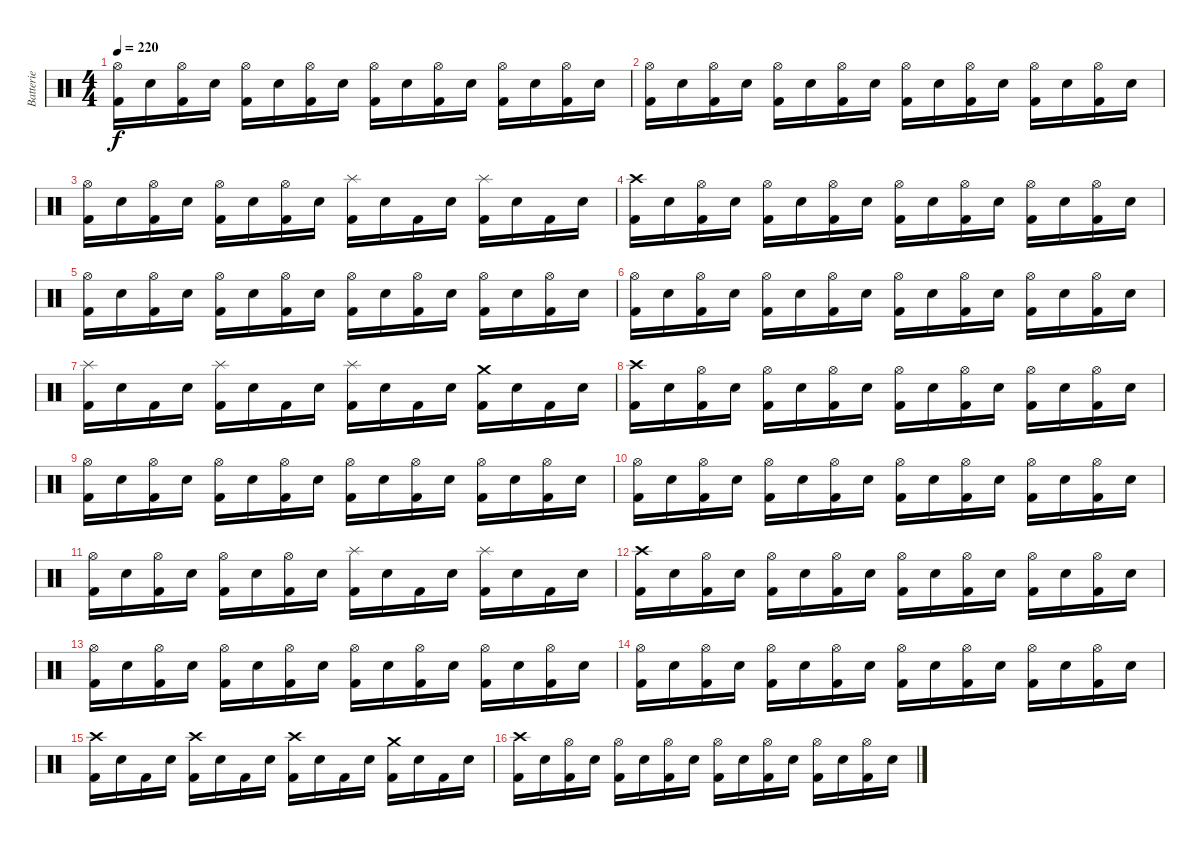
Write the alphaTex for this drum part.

\track ("Batterie" "Batterie") {instrument percussion}
\staff {score}
\articulation defaults
\ts (4 4)
\tempo 220
\clef neutral
\ks c
("Hi-Hat (open)" "Kick (hit) 2").16{dy f} "Electric Snare (hit)".16 ("Hi-Hat (open)" "Kick (hit) 2").16 "Electric Snare (hit)".16 ("Hi-Hat (open)" "Kick (hit) 2").16 "Electric Snare (hit)".16 ("Hi-Hat (open)" "Kick (hit) 2").16 "Electric Snare (hit)".16 ("Hi-Hat (open)" "Kick (hit) 2").16 "Electric Snare (hit)".16 ("Hi-Hat (open)" "Kick (hit) 2").16 "Electric Snare (hit)".16 ("Hi-Hat (open)" "Kick (hit) 2").16 "Electric Snare (hit)".16 ("Hi-Hat (open)" "Kick (hit) 2").16 "Electric Snare (hit)".16 |
("Hi-Hat (open)" "Kick (hit) 2").16 "Electric Snare (hit)".16 ("Hi-Hat (open)" "Kick (hit) 2").16 "Electric Snare (hit)".16 ("Hi-Hat (open)" "Kick (hit) 2").16 "Electric Snare (hit)".16 ("Hi-Hat (open)" "Kick (hit) 2").16 "Electric Snare (hit)".16 ("Hi-Hat (open)" "Kick (hit) 2").16 "Electric Snare (hit)".16 ("Hi-Hat (open)" "Kick (hit) 2").16 "Electric Snare (hit)".16 ("Hi-Hat (open)" "Kick (hit) 2").16 "Electric Snare (hit)".16 ("Hi-Hat (open)" "Kick (hit) 2").16 "Electric Snare (hit)".16 |
("Hi-Hat (open)" "Kick (hit) 2").16 "Electric Snare (hit)".16 ("Hi-Hat (open)" "Kick (hit) 2").16 "Electric Snare (hit)".16 ("Hi-Hat (open)" "Kick (hit) 2").16 "Electric Snare (hit)".16 ("Hi-Hat (open)" "Kick (hit) 2").16 "Electric Snare (hit)".16 ("Splash (hit)" "Kick (hit) 2").16 "Electric Snare (hit)".16 "Kick (hit) 2".16 "Electric Snare (hit)".16 ("Splash (hit)" "Kick (hit) 2").16 "Electric Snare (hit)".16 "Kick (hit) 2".16 "Electric Snare (hit)".16 |
("Crash high (hit)" "Kick (hit) 2").16 "Electric Snare (hit)".16 ("Hi-Hat (open)" "Kick (hit) 2").16 "Electric Snare (hit)".16 ("Hi-Hat (open)" "Kick (hit) 2").16 "Electric Snare (hit)".16 ("Hi-Hat (open)" "Kick (hit) 2").16 "Electric Snare (hit)".16 ("Hi-Hat (open)" "Kick (hit) 2").16 "Electric Snare (hit)".16 ("Hi-Hat (open)" "Kick (hit) 2").16 "Electric Snare (hit)".16 ("Hi-Hat (open)" "Kick (hit) 2").16 "Electric Snare (hit)".16 ("Hi-Hat (open)" "Kick (hit) 2").16 "Electric Snare (hit)".16 |
("Hi-Hat (open)" "Kick (hit) 2").16 "Electric Snare (hit)".16 ("Hi-Hat (open)" "Kick (hit) 2").16 "Electric Snare (hit)".16 ("Hi-Hat (open)" "Kick (hit) 2").16 "Electric Snare (hit)".16 ("Hi-Hat (open)" "Kick (hit) 2").16 "Electric Snare (hit)".16 ("Hi-Hat (open)" "Kick (hit) 2").16 "Electric Snare (hit)".16 ("Hi-Hat (open)" "Kick (hit) 2").16 "Electric Snare (hit)".16 ("Hi-Hat (open)" "Kick (hit) 2").16 "Electric Snare (hit)".16 ("Hi-Hat (open)" "Kick (hit) 2").16 "Electric Snare (hit)".16 |
("Hi-Hat (open)" "Kick (hit) 2").16 "Electric Snare (hit)".16 ("Hi-Hat (open)" "Kick (hit) 2").16 "Electric Snare (hit)".16 ("Hi-Hat (open)" "Kick (hit) 2").16 "Electric Snare (hit)".16 ("Hi-Hat (open)" "Kick (hit) 2").16 "Electric Snare (hit)".16 ("Hi-Hat (open)" "Kick (hit) 2").16 "Electric Snare (hit)".16 ("Hi-Hat (open)" "Kick (hit) 2").16 "Electric Snare (hit)".16 ("Hi-Hat (open)" "Kick (hit) 2").16 "Electric Snare (hit)".16 ("Hi-Hat (open)" "Kick (hit) 2").16 "Electric Snare (hit)".16 |
("Splash (hit)" "Kick (hit) 2").16 "Electric Snare (hit)".16 "Kick (hit) 2".16 "Electric Snare (hit)".16 ("Splash (hit)" "Kick (hit) 2").16 "Electric Snare (hit)".16 "Kick (hit) 2".16 "Electric Snare (hit)".16 ("Splash (hit)" "Kick (hit) 2").16 "Electric Snare (hit)".16 "Kick (hit) 2".16 "Electric Snare (hit)".16 ("Crash medium (hit)" "Kick (hit) 2").16 "Electric Snare (hit)".16 "Kick (hit) 2".16 "Electric Snare (hit)".16 |
("Crash high (hit)" "Kick (hit) 2").16 "Electric Snare (hit)".16 ("Hi-Hat (open)" "Kick (hit) 2").16 "Electric Snare (hit)".16 ("Hi-Hat (open)" "Kick (hit) 2").16 "Electric Snare (hit)".16 ("Hi-Hat (open)" "Kick (hit) 2").16 "Electric Snare (hit)".16 ("Hi-Hat (open)" "Kick (hit) 2").16 "Electric Snare (hit)".16 ("Hi-Hat (open)" "Kick (hit) 2").16 "Electric Snare (hit)".16 ("Hi-Hat (open)" "Kick (hit) 2").16 "Electric Snare (hit)".16 ("Hi-Hat (open)" "Kick (hit) 2").16 "Electric Snare (hit)".16 |
("Hi-Hat (open)" "Kick (hit) 2").16 "Electric Snare (hit)".16 ("Hi-Hat (open)" "Kick (hit) 2").16 "Electric Snare (hit)".16 ("Hi-Hat (open)" "Kick (hit) 2").16 "Electric Snare (hit)".16 ("Hi-Hat (open)" "Kick (hit) 2").16 "Electric Snare (hit)".16 ("Hi-Hat (open)" "Kick (hit) 2").16 "Electric Snare (hit)".16 ("Hi-Hat (open)" "Kick (hit) 2").16 "Electric Snare (hit)".16 ("Hi-Hat (open)" "Kick (hit) 2").16 "Electric Snare (hit)".16 ("Hi-Hat (open)" "Kick (hit) 2").16 "Electric Snare (hit)".16 |
("Hi-Hat (open)" "Kick (hit) 2").16 "Electric Snare (hit)".16 ("Hi-Hat (open)" "Kick (hit) 2").16 "Electric Snare (hit)".16 ("Hi-Hat (open)" "Kick (hit) 2").16 "Electric Snare (hit)".16 ("Hi-Hat (open)" "Kick (hit) 2").16 "Electric Snare (hit)".16 ("Hi-Hat (open)" "Kick (hit) 2").16 "Electric Snare (hit)".16 ("Hi-Hat (open)" "Kick (hit) 2").16 "Electric Snare (hit)".16 ("Hi-Hat (open)" "Kick (hit) 2").16 "Electric Snare (hit)".16 ("Hi-Hat (open)" "Kick (hit) 2").16 "Electric Snare (hit)".16 |
("Hi-Hat (open)" "Kick (hit) 2").16 "Electric Snare (hit)".16 ("Hi-Hat (open)" "Kick (hit) 2").16 "Electric Snare (hit)".16 ("Hi-Hat (open)" "Kick (hit) 2").16 "Electric Snare (hit)".16 ("Hi-Hat (open)" "Kick (hit) 2").16 "Electric Snare (hit)".16 ("Splash (hit)" "Kick (hit) 2").16 "Electric Snare (hit)".16 "Kick (hit) 2".16 "Electric Snare (hit)".16 ("Splash (hit)" "Kick (hit) 2").16 "Electric Snare (hit)".16 "Kick (hit) 2".16 "Electric Snare (hit)".16 |
("Crash high (hit)" "Kick (hit) 2").16 "Electric Snare (hit)".16 ("Hi-Hat (open)" "Kick (hit) 2").16 "Electric Snare (hit)".16 ("Hi-Hat (open)" "Kick (hit) 2").16 "Electric Snare (hit)".16 ("Hi-Hat (open)" "Kick (hit) 2").16 "Electric Snare (hit)".16 ("Hi-Hat (open)" "Kick (hit) 2").16 "Electric Snare (hit)".16 ("Hi-Hat (open)" "Kick (hit) 2").16 "Electric Snare (hit)".16 ("Hi-Hat (open)" "Kick (hit) 2").16 "Electric Snare (hit)".16 ("Hi-Hat (open)" "Kick (hit) 2").16 "Electric Snare (hit)".16 |
("Hi-Hat (open)" "Kick (hit) 2").16 "Electric Snare (hit)".16 ("Hi-Hat (open)" "Kick (hit) 2").16 "Electric Snare (hit)".16 ("Hi-Hat (open)" "Kick (hit) 2").16 "Electric Snare (hit)".16 ("Hi-Hat (open)" "Kick (hit) 2").16 "Electric Snare (hit)".16 ("Hi-Hat (open)" "Kick (hit) 2").16 "Electric Snare (hit)".16 ("Hi-Hat (open)" "Kick (hit) 2").16 "Electric Snare (hit)".16 ("Hi-Hat (open)" "Kick (hit) 2").16 "Electric Snare (hit)".16 ("Hi-Hat (open)" "Kick (hit) 2").16 "Electric Snare (hit)".16 |
("Hi-Hat (open)" "Kick (hit) 2").16 "Electric Snare (hit)".16 ("Hi-Hat (open)" "Kick (hit) 2").16 "Electric Snare (hit)".16 ("Hi-Hat (open)" "Kick (hit) 2").16 "Electric Snare (hit)".16 ("Hi-Hat (open)" "Kick (hit) 2").16 "Electric Snare (hit)".16 ("Hi-Hat (open)" "Kick (hit) 2").16 "Electric Snare (hit)".16 ("Hi-Hat (open)" "Kick (hit) 2").16 "Electric Snare (hit)".16 ("Hi-Hat (open)" "Kick (hit) 2").16 "Electric Snare (hit)".16 ("Hi-Hat (open)" "Kick (hit) 2").16 "Electric Snare (hit)".16 |
("Crash high (hit)" "Kick (hit) 2").16 "Electric Snare (hit)".16 "Kick (hit) 2".16 "Electric Snare (hit)".16 ("Crash high (hit)" "Kick (hit) 2").16 "Electric Snare (hit)".16 "Kick (hit) 2".16 "Electric Snare (hit)".16 ("Crash high (hit)" "Kick (hit) 2").16 "Electric Snare (hit)".16 "Kick (hit) 2".16 "Electric Snare (hit)".16 ("Crash medium (hit)" "Kick (hit) 2").16 "Electric Snare (hit)".16 "Kick (hit) 2".16 "Electric Snare (hit)".16 |
("Crash high (hit)" "Kick (hit) 2").16 "Electric Snare (hit)".16 ("Hi-Hat (open)" "Kick (hit) 2").16 "Electric Snare (hit)".16 ("Hi-Hat (open)" "Kick (hit) 2").16 "Electric Snare (hit)".16 ("Hi-Hat (open)" "Kick (hit) 2").16 "Electric Snare (hit)".16 ("Hi-Hat (open)" "Kick (hit) 2").16 "Electric Snare (hit)".16 ("Hi-Hat (open)" "Kick (hit) 2").16 "Electric Snare (hit)".16 ("Hi-Hat (open)" "Kick (hit) 2").16 "Electric Snare (hit)".16 ("Hi-Hat (open)" "Kick (hit) 2").16 "Electric Snare (hit)".16
